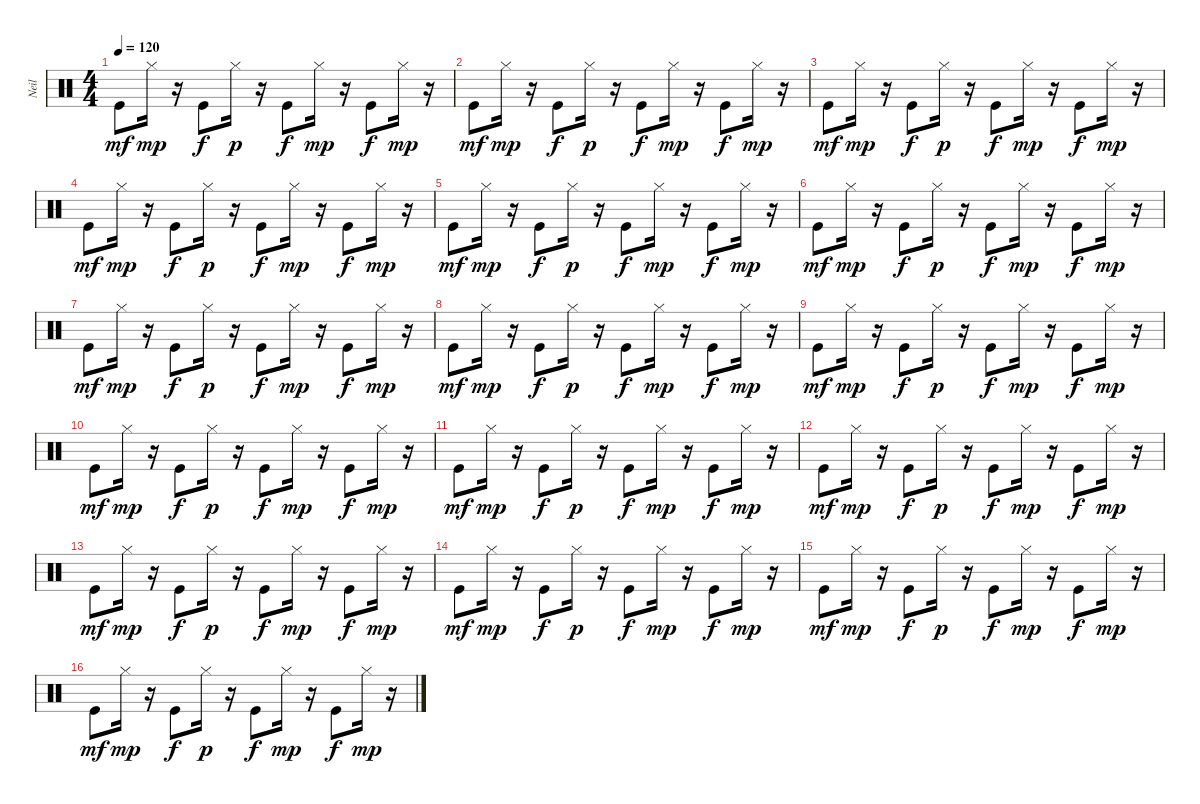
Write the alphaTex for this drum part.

\track ("Neil" "Neil") {instrument percussion}
\staff {score}
\articulation defaults
\ts (4 4)
\tempo 120
\clef neutral
\ks c "Kick (hit)".8{dy mf} "Hi-Hat (closed)".16{dy mp}
r.16 "Kick (hit)".8{dy f} "Hi-Hat (closed)".16{dy p} r.16 "Kick (hit)".8{dy f} "Hi-Hat (closed)".16{dy mp} r.16 "Kick (hit)".8{dy f} "Hi-Hat (closed)".16{dy mp} r.16 |
"Kick (hit)".8{dy mf} "Hi-Hat (closed)".16{dy mp} r.16 "Kick (hit)".8{dy f} "Hi-Hat (closed)".16{dy p} r.16 "Kick (hit)".8{dy f volume 10} "Hi-Hat (closed)".16{dy mp volume 10} r.16 "Kick (hit)".8{dy f} "Hi-Hat (closed)".16{dy mp volume 9} r.16 |
"Kick (hit)".8{dy mf} "Hi-Hat (closed)".16{dy mp} r.16 "Kick (hit)".8{dy f volume 9} "Hi-Hat (closed)".16{dy p} r.16 "Kick (hit)".8{dy f volume 9} "Hi-Hat (closed)".16{dy mp} r.16 "Kick (hit)".8{dy f} "Hi-Hat (closed)".16{dy mp volume 9} r.16 |
"Kick (hit)".8{dy mf} "Hi-Hat (closed)".16{dy mp} r.16 "Kick (hit)".8{dy f volume 9} "Hi-Hat (closed)".16{dy p} r.16 "Kick (hit)".8{dy f} "Hi-Hat (closed)".16{dy mp} r.16 "Kick (hit)".8{dy f} "Hi-Hat (closed)".16{dy mp} r.16 |
"Kick (hit)".8{dy mf} "Hi-Hat (closed)".16{dy mp} r.16 "Kick (hit)".8{dy f} "Hi-Hat (closed)".16{dy p} r.16 "Kick (hit)".8{dy f} "Hi-Hat (closed)".16{dy mp} r.16 "Kick (hit)".8{dy f volume 9} "Hi-Hat (closed)".16{dy mp volume 9} r.16 |
"Kick (hit)".8{dy mf volume 9} "Hi-Hat (closed)".16{dy mp volume 9} r.16 "Kick (hit)".8{dy f} "Hi-Hat (closed)".16{dy p} r.16 "Kick (hit)".8{dy f volume 9} "Hi-Hat (closed)".16{dy mp} r.16 "Kick (hit)".8{dy f} "Hi-Hat (closed)".16{dy mp} r.16 |
"Kick (hit)".8{dy mf} "Hi-Hat (closed)".16{dy mp} r.16 "Kick (hit)".8{dy f} "Hi-Hat (closed)".16{dy p} r.16 "Kick (hit)".8{dy f} "Hi-Hat (closed)".16{dy mp} r.16 "Kick (hit)".8{dy f} "Hi-Hat (closed)".16{dy mp} r.16 |
"Kick (hit)".8{dy mf} "Hi-Hat (closed)".16{dy mp} r.16 "Kick (hit)".8{dy f} "Hi-Hat (closed)".16{dy p} r.16 "Kick (hit)".8{dy f} "Hi-Hat (closed)".16{dy mp} r.16 "Kick (hit)".8{dy f} "Hi-Hat (closed)".16{dy mp} r.16 |
"Kick (hit)".8{dy mf} "Hi-Hat (closed)".16{dy mp} r.16 "Kick (hit)".8{dy f} "Hi-Hat (closed)".16{dy p} r.16 "Kick (hit)".8{dy f} "Hi-Hat (closed)".16{dy mp} r.16 "Kick (hit)".8{dy f} "Hi-Hat (closed)".16{dy mp} r.16 |
"Kick (hit)".8{dy mf} "Hi-Hat (closed)".16{dy mp} r.16 "Kick (hit)".8{dy f} "Hi-Hat (closed)".16{dy p} r.16 "Kick (hit)".8{dy f} "Hi-Hat (closed)".16{dy mp} r.16 "Kick (hit)".8{dy f} "Hi-Hat (closed)".16{dy mp} r.16 |
"Kick (hit)".8{dy mf} "Hi-Hat (closed)".16{dy mp} r.16 "Kick (hit)".8{dy f} "Hi-Hat (closed)".16{dy p} r.16 "Kick (hit)".8{dy f} "Hi-Hat (closed)".16{dy mp} r.16 "Kick (hit)".8{dy f} "Hi-Hat (closed)".16{dy mp} r.16 |
"Kick (hit)".8{dy mf} "Hi-Hat (closed)".16{dy mp} r.16 "Kick (hit)".8{dy f} "Hi-Hat (closed)".16{dy p} r.16 "Kick (hit)".8{dy f} "Hi-Hat (closed)".16{dy mp} r.16 "Kick (hit)".8{dy f volume 9} "Hi-Hat (closed)".16{dy mp} r.16 |
"Kick (hit)".8{dy mf} "Hi-Hat (closed)".16{dy mp} r.16 "Kick (hit)".8{dy f} "Hi-Hat (closed)".16{dy p} r.16 "Kick (hit)".8{dy f} "Hi-Hat (closed)".16{dy mp} r.16 "Kick (hit)".8{dy f} "Hi-Hat (closed)".16{dy mp} r.16 |
"Kick (hit)".8{dy mf} "Hi-Hat (closed)".16{dy mp} r.16 "Kick (hit)".8{dy f} "Hi-Hat (closed)".16{dy p} r.16 "Kick (hit)".8{dy f} "Hi-Hat (closed)".16{dy mp} r.16 "Kick (hit)".8{dy f} "Hi-Hat (closed)".16{dy mp} r.16 |
"Kick (hit)".8{dy mf} "Hi-Hat (closed)".16{dy mp} r.16 "Kick (hit)".8{dy f} "Hi-Hat (closed)".16{dy p} r.16 "Kick (hit)".8{dy f} "Hi-Hat (closed)".16{dy mp} r.16 "Kick (hit)".8{dy f} "Hi-Hat (closed)".16{dy mp} r.16 |
"Kick (hit)".8{dy mf} "Hi-Hat (closed)".16{dy mp} r.16 "Kick (hit)".8{dy f} "Hi-Hat (closed)".16{dy p} r.16 "Kick (hit)".8{dy f} "Hi-Hat (closed)".16{dy mp} r.16 "Kick (hit)".8{dy f} "Hi-Hat (closed)".16{dy mp} r.16
